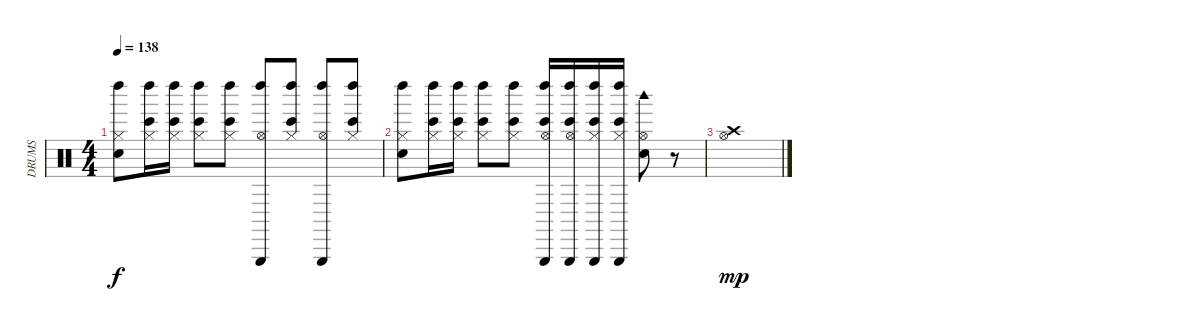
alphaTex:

\track ("DRUMS" "DRUMS") {instrument percussion}
\staff {score}
\articulation defaults
\ts (4 4)
\tempo 138
\clef neutral
\ks c
("Hi-Hat (closed)" "Electric Snare (hit)" "Left Maraca (hit)").8{dy f} ("Hi-Hat (closed)" "Bongo High (hit)" "Left Maraca (hit)").16 ("Hi-Hat (closed)" "Bongo High (hit)" "Left Maraca (hit)").16 ("Hi-Hat (closed)" "Bongo High (hit)" "Left Maraca (hit)").8 ("Hi-Hat (closed)" "Bongo High (hit)" "Left Maraca (hit)").8 ("Hi-Hat (open)" "Triangle (hit)" "Left Maraca (hit)").8 ("Hi-Hat (closed)" "Bongo High (hit)" "Left Maraca (hit)").8 ("Hi-Hat (open)" "Triangle (hit)" "Left Maraca (hit)").8 ("Hi-Hat (closed)" "Bongo High (hit)" "Left Maraca (hit)").8 |
("Hi-Hat (closed)" "Electric Snare (hit)" "Left Maraca (hit)").8 ("Hi-Hat (closed)" "Bongo High (hit)" "Left Maraca (hit)").16 ("Hi-Hat (closed)" "Bongo High (hit)" "Left Maraca (hit)").16 ("Hi-Hat (closed)" "Bongo High (hit)" "Left Maraca (hit)").8 ("Hi-Hat (closed)" "Bongo High (hit)" "Left Maraca (hit)").8 ("Hi-Hat (open)" "Triangle (hit)" "Bongo High (hit)" "Left Maraca (hit)").16 ("Hi-Hat (open)" "Triangle (hit)" "Bongo High (hit)" "Left Maraca (hit)").16 ("Hi-Hat (closed)" "Triangle (hit)" "Bongo High (hit)" "Left Maraca (hit)").16 ("Hi-Hat (closed)" "Triangle (hit)" "Bongo High (hit)" "Left Maraca (hit)").16 ("Hi-Hat (open)" "Electric Snare (hit)" "Woodblock high (hit)").8 r.8 |
("Hi-Hat (open)" "Crash high (hit)").1{dy mp}
